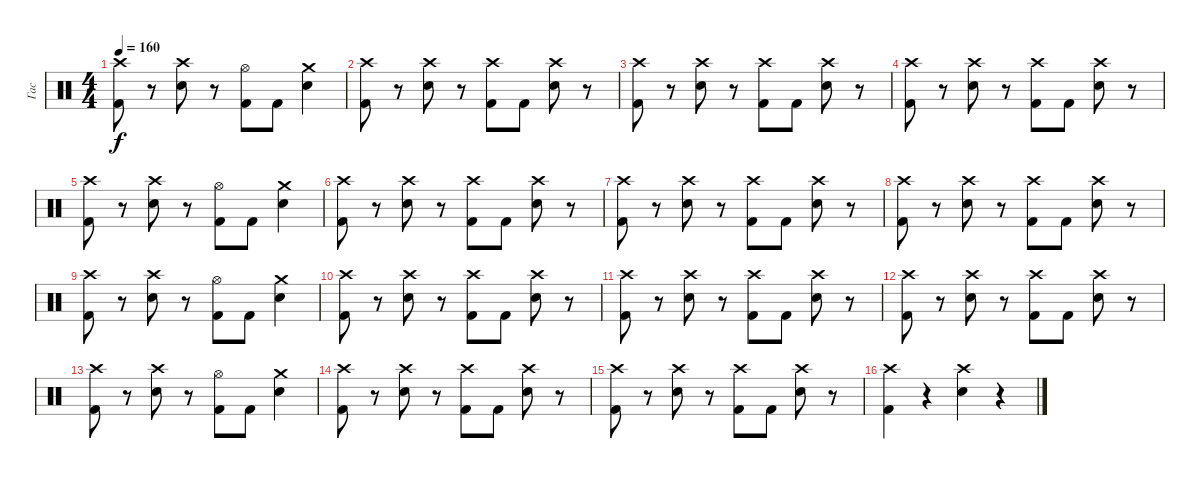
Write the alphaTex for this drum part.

\track ("Гас" "Гас") {instrument percussion}
\staff {score}
\articulation defaults
\ts (4 4)
\tempo 160
\clef neutral
\ks c
("Crash high (hit)" "Kick (hit) 2").8{dy f} r.8 ("Crash high (hit)" "Electric Snare (hit)").8 r.8 ("Hi-Hat (open)" "Kick (hit) 2").8 "Kick (hit) 2".8 ("Crash medium (hit)" "Electric Snare (hit)").4 |
("Crash high (hit)" "Kick (hit) 2").8 r.8 ("Crash high (hit)" "Electric Snare (hit)").8 r.8 ("Crash high (hit)" "Kick (hit) 2").8 "Kick (hit) 2".8 ("Crash high (hit)" "Electric Snare (hit)").8 r.8 |
("Crash high (hit)" "Kick (hit) 2").8 r.8 ("Crash high (hit)" "Electric Snare (hit)").8 r.8 ("Crash high (hit)" "Kick (hit) 2").8 "Kick (hit) 2".8 ("Crash high (hit)" "Electric Snare (hit)").8 r.8 |
("Crash high (hit)" "Kick (hit) 2").8 r.8 ("Crash high (hit)" "Electric Snare (hit)").8 r.8 ("Crash high (hit)" "Kick (hit) 2").8 "Kick (hit) 2".8 ("Crash high (hit)" "Electric Snare (hit)").8 r.8 |
("Crash high (hit)" "Kick (hit) 2").8 r.8 ("Crash high (hit)" "Electric Snare (hit)").8 r.8 ("Hi-Hat (open)" "Kick (hit) 2").8 "Kick (hit) 2".8 ("Crash medium (hit)" "Electric Snare (hit)").4 |
("Crash high (hit)" "Kick (hit) 2").8 r.8 ("Crash high (hit)" "Electric Snare (hit)").8 r.8 ("Crash high (hit)" "Kick (hit) 2").8 "Kick (hit) 2".8 ("Crash high (hit)" "Electric Snare (hit)").8 r.8 |
("Crash high (hit)" "Kick (hit) 2").8 r.8 ("Crash high (hit)" "Electric Snare (hit)").8 r.8 ("Crash high (hit)" "Kick (hit) 2").8 "Kick (hit) 2".8 ("Crash high (hit)" "Electric Snare (hit)").8 r.8 |
("Crash high (hit)" "Kick (hit) 2").8 r.8 ("Crash high (hit)" "Electric Snare (hit)").8 r.8 ("Crash high (hit)" "Kick (hit) 2").8 "Kick (hit) 2".8 ("Crash high (hit)" "Electric Snare (hit)").8 r.8 |
("Crash high (hit)" "Kick (hit) 2").8 r.8 ("Crash high (hit)" "Electric Snare (hit)").8 r.8 ("Hi-Hat (open)" "Kick (hit) 2").8 "Kick (hit) 2".8 ("Crash medium (hit)" "Electric Snare (hit)").4 |
("Crash high (hit)" "Kick (hit) 2").8 r.8 ("Crash high (hit)" "Electric Snare (hit)").8 r.8 ("Crash high (hit)" "Kick (hit) 2").8 "Kick (hit) 2".8 ("Crash high (hit)" "Electric Snare (hit)").8 r.8 |
("Crash high (hit)" "Kick (hit) 2").8 r.8 ("Crash high (hit)" "Electric Snare (hit)").8 r.8 ("Crash high (hit)" "Kick (hit) 2").8 "Kick (hit) 2".8 ("Crash high (hit)" "Electric Snare (hit)").8 r.8 |
("Crash high (hit)" "Kick (hit) 2").8 r.8 ("Crash high (hit)" "Electric Snare (hit)").8 r.8 ("Crash high (hit)" "Kick (hit) 2").8 "Kick (hit) 2".8 ("Crash high (hit)" "Electric Snare (hit)").8 r.8 |
("Crash high (hit)" "Kick (hit) 2").8 r.8 ("Crash high (hit)" "Electric Snare (hit)").8 r.8 ("Hi-Hat (open)" "Kick (hit) 2").8 "Kick (hit) 2".8 ("Crash medium (hit)" "Electric Snare (hit)").4 |
("Crash high (hit)" "Kick (hit) 2").8 r.8 ("Crash high (hit)" "Electric Snare (hit)").8 r.8 ("Crash high (hit)" "Kick (hit) 2").8 "Kick (hit) 2".8 ("Crash high (hit)" "Electric Snare (hit)").8 r.8 |
("Crash high (hit)" "Kick (hit) 2").8 r.8 ("Crash high (hit)" "Electric Snare (hit)").8 r.8 ("Crash high (hit)" "Kick (hit) 2").8 "Kick (hit) 2".8 ("Crash high (hit)" "Electric Snare (hit)").8 r.8 |
("Crash high (hit)" "Kick (hit) 2").4 r.4 ("Crash high (hit)" "Electric Snare (hit)").4 r.4
